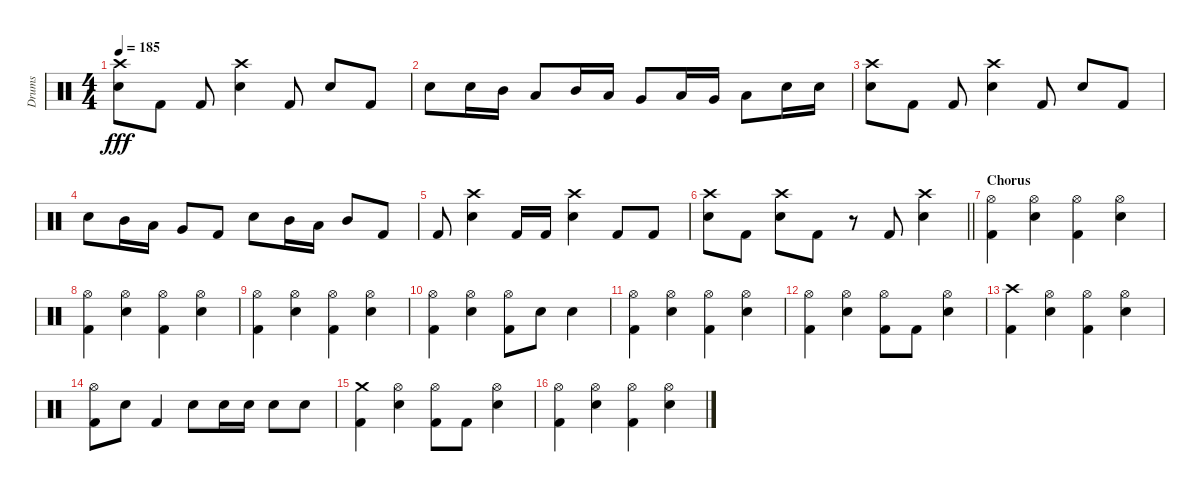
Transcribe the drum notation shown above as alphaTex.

\track ("Drums" "Drums") {instrument percussion}
\staff {score}
\articulation defaults
\ts (4 4)
\tempo 185
\clef neutral
\ks c
("Crash high (hit)" "Electric Snare (hit)").8{dy fff} "Kick (hit) 2".8 "Kick (hit) 2".8 ("Crash high (hit)" "Electric Snare (hit)").4 "Kick (hit) 2".8 "Electric Snare (hit)".8 "Kick (hit) 2".8 |
"Electric Snare (hit)".8 "Electric Snare (hit)".16 "Mid Tom (hit)".16 "Low Tom (hit)".8 "Mid Tom (hit)".16 "Low Tom (hit)".16 "Very Low Tom (hit)".8 "Low Tom (hit)".16 "Very Low Tom (hit)".16 "Low Floor Tom (hit)".8 "Electric Snare (hit)".16 "Electric Snare (hit)".16 |
("Crash high (hit)" "Electric Snare (hit)").8 "Kick (hit) 2".8 "Kick (hit) 2".8 ("Crash high (hit)" "Electric Snare (hit)").4 "Kick (hit) 2".8 "Electric Snare (hit)".8 "Kick (hit) 2".8 |
"Electric Snare (hit)".8 "Mid Tom (hit)".16 "Low Tom (hit)".16 "Very Low Tom (hit)".8 "Kick (hit) 2".8 "Electric Snare (hit)".8 "Mid Tom (hit)".16 "Low Tom (hit)".16 "Mid Tom (hit)".8 "Kick (hit) 2".8 |
"Kick (hit) 2".8 ("Crash high (hit)" "Electric Snare (hit)").4 "Kick (hit) 2".16 "Kick (hit) 2".16 ("Crash high (hit)" "Electric Snare (hit)").4 "Kick (hit) 2".8 "Kick (hit) 2".8 |
\barLineRight lightlight
("Crash high (hit)" "Electric Snare (hit)").8 "Kick (hit) 2".8 ("Crash high (hit)" "Electric Snare (hit)").8 "Kick (hit) 2".8 r.8 "Kick (hit) 2".8 ("Crash high (hit)" "Electric Snare (hit)").4 |
\section ("" "Chorus")
("Hi-Hat (open)" "Kick (hit) 2").4 ("Hi-Hat (open)" "Electric Snare (hit)").4 ("Hi-Hat (open)" "Kick (hit) 2").4 ("Hi-Hat (open)" "Electric Snare (hit)").4 |
("Hi-Hat (open)" "Kick (hit) 2").4 ("Hi-Hat (open)" "Electric Snare (hit)").4 ("Hi-Hat (open)" "Kick (hit) 2").4 ("Hi-Hat (open)" "Electric Snare (hit)").4 |
("Hi-Hat (open)" "Kick (hit) 2").4 ("Hi-Hat (open)" "Electric Snare (hit)").4 ("Hi-Hat (open)" "Kick (hit) 2").4 ("Hi-Hat (open)" "Electric Snare (hit)").4 |
("Hi-Hat (open)" "Kick (hit) 2").4 ("Hi-Hat (open)" "Electric Snare (hit)").4 ("Hi-Hat (open)" "Kick (hit) 2").8 "Electric Snare (hit)".8 "Electric Snare (hit)".4 |
("Hi-Hat (open)" "Kick (hit) 2").4 ("Hi-Hat (open)" "Electric Snare (hit)").4 ("Hi-Hat (open)" "Kick (hit) 2").4 ("Hi-Hat (open)" "Electric Snare (hit)").4 |
("Hi-Hat (open)" "Kick (hit) 2").4 ("Hi-Hat (open)" "Electric Snare (hit)").4 ("Hi-Hat (open)" "Kick (hit) 2").8 "Kick (hit) 2".8 ("Hi-Hat (open)" "Electric Snare (hit)").4 |
("Crash high (hit)" "Kick (hit) 2").4 ("Hi-Hat (open)" "Electric Snare (hit)").4 ("Hi-Hat (open)" "Kick (hit) 2").4 ("Hi-Hat (open)" "Electric Snare (hit)").4 |
("Hi-Hat (open)" "Kick (hit) 2").8 "Electric Snare (hit)".8 "Kick (hit) 2".4 "Electric Snare (hit)".8 "Electric Snare (hit)".16 "Electric Snare (hit)".16 "Electric Snare (hit)".8 "Electric Snare (hit)".8 |
("Crash medium (hit)" "Kick (hit) 2").4 ("Hi-Hat (open)" "Electric Snare (hit)").4 ("Hi-Hat (open)" "Kick (hit) 2").8 "Kick (hit) 2".8 ("Hi-Hat (open)" "Electric Snare (hit)").4 |
("Hi-Hat (open)" "Kick (hit) 2").4 ("Hi-Hat (open)" "Electric Snare (hit)").4 ("Hi-Hat (open)" "Kick (hit) 2").4 ("Hi-Hat (open)" "Electric Snare (hit)").4
